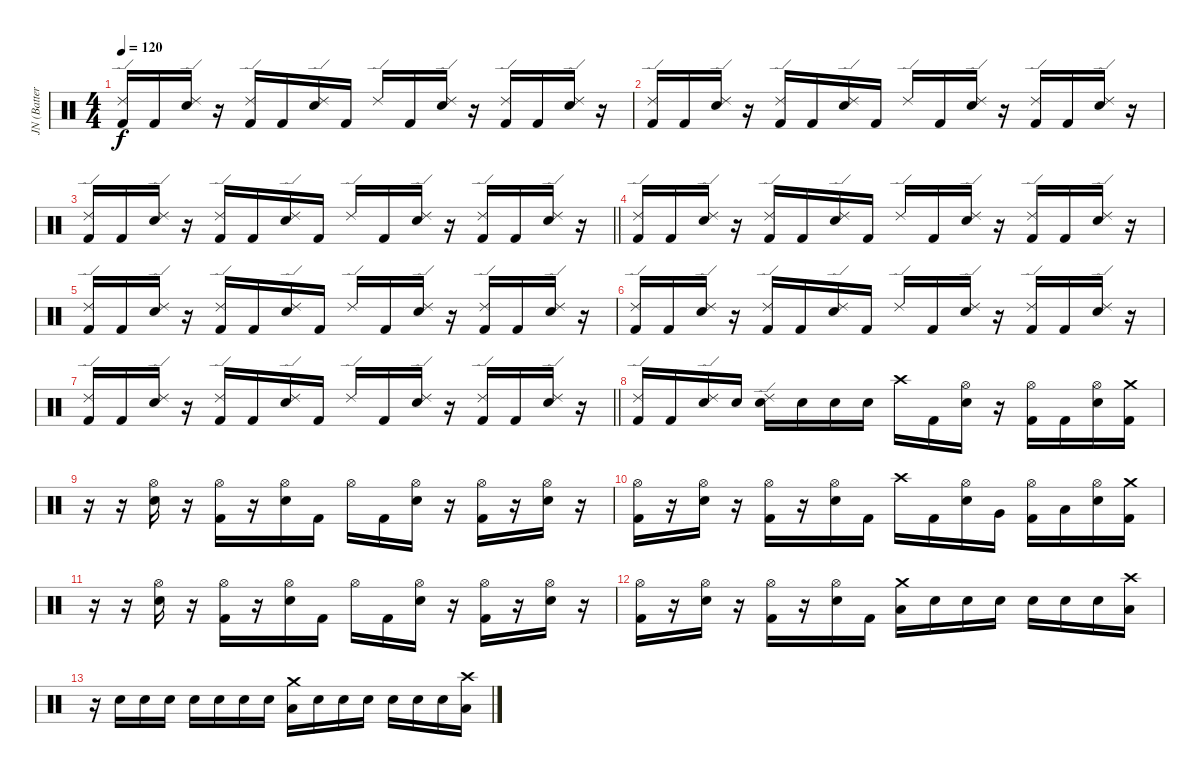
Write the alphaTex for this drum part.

\track ("JN (Batterie)" "JN (Batter") {instrument percussion}
\staff {score}
\articulation defaults
\ts (4 4)
\tempo 120
\clef neutral
\ks c
("Ride (edge) 2" "Kick (hit) 2").16{dy f} "Kick (hit) 2".16 ("Ride (edge) 2" "Electric Snare (hit)").16 r.16 ("Ride (edge) 2" "Kick (hit) 2").16 "Kick (hit) 2".16 ("Ride (edge) 2" "Electric Snare (hit)").16 "Kick (hit) 2".16 "Ride (edge) 2".16 "Kick (hit) 2".16 ("Ride (edge) 2" "Electric Snare (hit)").16 r.16 ("Ride (edge) 2" "Kick (hit) 2").16 "Kick (hit) 2".16 ("Ride (edge) 2" "Electric Snare (hit)").16 r.16 |
("Ride (edge) 2" "Kick (hit) 2").16 "Kick (hit) 2".16 ("Ride (edge) 2" "Electric Snare (hit)").16 r.16 ("Ride (edge) 2" "Kick (hit) 2").16 "Kick (hit) 2".16 ("Ride (edge) 2" "Electric Snare (hit)").16 "Kick (hit) 2".16 "Ride (edge) 2".16 "Kick (hit) 2".16 ("Ride (edge) 2" "Electric Snare (hit)").16 r.16 ("Ride (edge) 2" "Kick (hit) 2").16 "Kick (hit) 2".16 ("Ride (edge) 2" "Electric Snare (hit)").16 r.16 |
\barLineRight lightlight
("Ride (edge) 2" "Kick (hit) 2").16 "Kick (hit) 2".16 ("Ride (edge) 2" "Electric Snare (hit)").16 r.16 ("Ride (edge) 2" "Kick (hit) 2").16 "Kick (hit) 2".16 ("Ride (edge) 2" "Electric Snare (hit)").16 "Kick (hit) 2".16 "Ride (edge) 2".16 "Kick (hit) 2".16 ("Ride (edge) 2" "Electric Snare (hit)").16 r.16 ("Ride (edge) 2" "Kick (hit) 2").16 "Kick (hit) 2".16 ("Ride (edge) 2" "Electric Snare (hit)").16 r.16 |
("Ride (edge) 2" "Kick (hit) 2").16 "Kick (hit) 2".16 ("Ride (edge) 2" "Electric Snare (hit)").16 r.16 ("Ride (edge) 2" "Kick (hit) 2").16 "Kick (hit) 2".16 ("Ride (edge) 2" "Electric Snare (hit)").16 "Kick (hit) 2".16 "Ride (edge) 2".16 "Kick (hit) 2".16 ("Ride (edge) 2" "Electric Snare (hit)").16 r.16 ("Ride (edge) 2" "Kick (hit) 2").16 "Kick (hit) 2".16 ("Ride (edge) 2" "Electric Snare (hit)").16 r.16 |
("Ride (edge) 2" "Kick (hit) 2").16 "Kick (hit) 2".16 ("Ride (edge) 2" "Electric Snare (hit)").16 r.16 ("Ride (edge) 2" "Kick (hit) 2").16 "Kick (hit) 2".16 ("Ride (edge) 2" "Electric Snare (hit)").16 "Kick (hit) 2".16 "Ride (edge) 2".16 "Kick (hit) 2".16 ("Ride (edge) 2" "Electric Snare (hit)").16 r.16 ("Ride (edge) 2" "Kick (hit) 2").16 "Kick (hit) 2".16 ("Ride (edge) 2" "Electric Snare (hit)").16 r.16 |
("Ride (edge) 2" "Kick (hit) 2").16 "Kick (hit) 2".16 ("Ride (edge) 2" "Electric Snare (hit)").16 r.16 ("Ride (edge) 2" "Kick (hit) 2").16 "Kick (hit) 2".16 ("Ride (edge) 2" "Electric Snare (hit)").16 "Kick (hit) 2".16 "Ride (edge) 2".16 "Kick (hit) 2".16 ("Ride (edge) 2" "Electric Snare (hit)").16 r.16 ("Ride (edge) 2" "Kick (hit) 2").16 "Kick (hit) 2".16 ("Ride (edge) 2" "Electric Snare (hit)").16 r.16 |
\barLineRight lightlight
("Ride (edge) 2" "Kick (hit) 2").16 "Kick (hit) 2".16 ("Ride (edge) 2" "Electric Snare (hit)").16 r.16 ("Ride (edge) 2" "Kick (hit) 2").16 "Kick (hit) 2".16 ("Ride (edge) 2" "Electric Snare (hit)").16 "Kick (hit) 2".16 "Ride (edge) 2".16 "Kick (hit) 2".16 ("Ride (edge) 2" "Electric Snare (hit)").16 r.16 ("Ride (edge) 2" "Kick (hit) 2").16 "Kick (hit) 2".16 ("Ride (edge) 2" "Electric Snare (hit)").16 r.16 |
("Ride (edge) 2" "Kick (hit) 2").16 "Kick (hit) 2".16 ("Ride (edge) 2" "Electric Snare (hit)").16 "Electric Snare (hit)".16 ("Ride (edge) 2" "Electric Snare (hit)").16 "Electric Snare (hit)".16 "Electric Snare (hit)".16 "Electric Snare (hit)".16 "Crash high (hit)".16 "Kick (hit) 2".16 ("Hi-Hat (open)" "Electric Snare (hit)").16 r.16 ("Hi-Hat (open)" "Kick (hit) 2").16 "Kick (hit) 2".16 ("Hi-Hat (open)" "Electric Snare (hit)").16 ("Crash medium (hit)" "Kick (hit) 2").16 |
r.16 r.16 ("Hi-Hat (open)" "Electric Snare (hit)").16 r.16 ("Hi-Hat (open)" "Kick (hit) 2").16 r.16 ("Hi-Hat (open)" "Electric Snare (hit)").16 "Kick (hit) 2".16 "Hi-Hat (open)".16 "Kick (hit) 2".16 ("Hi-Hat (open)" "Electric Snare (hit)").16 r.16 ("Hi-Hat (open)" "Kick (hit) 2").16 r.16 ("Hi-Hat (open)" "Electric Snare (hit)").16 r.16 |
("Hi-Hat (open)" "Kick (hit) 2").16 r.16 ("Hi-Hat (open)" "Electric Snare (hit)").16 r.16 ("Hi-Hat (open)" "Kick (hit) 2").16 r.16 ("Hi-Hat (open)" "Electric Snare (hit)").16 "Kick (hit) 2".16 "Crash high (hit)".16 "Kick (hit) 2".16 ("Hi-Hat (open)" "Electric Snare (hit)").16 "Very Low Tom (hit)".16 ("Hi-Hat (open)" "Kick (hit) 2").16 "Low Tom (hit)".16 ("Hi-Hat (open)" "Electric Snare (hit)").16 ("Crash medium (hit)" "Kick (hit) 2").16 |
r.16 r.16 ("Hi-Hat (open)" "Electric Snare (hit)").16 r.16 ("Hi-Hat (open)" "Kick (hit) 2").16 r.16 ("Hi-Hat (open)" "Electric Snare (hit)").16 "Kick (hit) 2".16 "Hi-Hat (open)".16 "Kick (hit) 2".16 ("Hi-Hat (open)" "Electric Snare (hit)").16 r.16 ("Hi-Hat (open)" "Kick (hit) 2").16 r.16 ("Hi-Hat (open)" "Electric Snare (hit)").16 r.16 |
("Hi-Hat (open)" "Kick (hit) 2").16 r.16 ("Hi-Hat (open)" "Electric Snare (hit)").16 r.16 ("Hi-Hat (open)" "Kick (hit) 2").16 r.16 ("Hi-Hat (open)" "Electric Snare (hit)").16 "Kick (hit) 2".16 ("Crash medium (hit)" "Low Tom (hit)").16 "Electric Snare (hit)".16 "Electric Snare (hit)".16 "Electric Snare (hit)".16 "Electric Snare (hit)".16 "Electric Snare (hit)".16 "Electric Snare (hit)".16 ("Crash high (hit)" "Low Tom (hit)").16 |
r.16 "Electric Snare (hit)".16 "Electric Snare (hit)".16 "Electric Snare (hit)".16 "Electric Snare (hit)".16 "Electric Snare (hit)".16 "Electric Snare (hit)".16 "Electric Snare (hit)".16 ("Low Tom (hit)" "Crash medium (hit)").16 "Electric Snare (hit)".16 "Electric Snare (hit)".16 "Electric Snare (hit)".16 "Electric Snare (hit)".16 "Electric Snare (hit)".16 "Electric Snare (hit)".16 ("Low Tom (hit)" "Crash high (hit)").16
